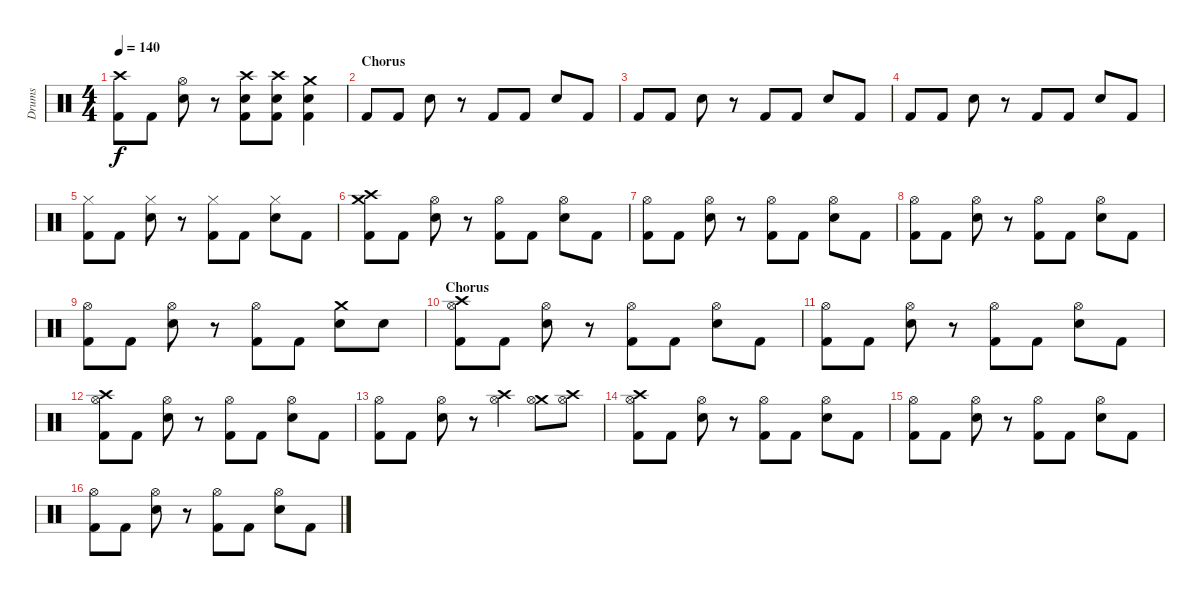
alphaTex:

\track ("Drums" "Drums") {instrument percussion}
\staff {score}
\articulation defaults
\ts (4 4)
\tempo 140
\clef neutral
\ks c
("Crash high (hit)" "Kick (hit) 2").8{dy f} "Kick (hit) 2".8 ("Hi-Hat (open)" "Electric Snare (hit)").8 r.8 ("Crash high (hit)" "Electric Snare (hit)" "Kick (hit) 2").8 ("Crash high (hit)" "Electric Snare (hit)" "Kick (hit) 2").8 ("Crash medium (hit)" "Electric Snare (hit)" "Kick (hit) 2").4 |
\section ("" "Chorus")
"Kick (hit) 2".8 "Kick (hit) 2".8 "Electric Snare (hit)".8 r.8 "Kick (hit) 2".8 "Kick (hit) 2".8 "Electric Snare (hit)".8 "Kick (hit) 2".8 |
"Kick (hit) 2".8 "Kick (hit) 2".8 "Electric Snare (hit)".8 r.8 "Kick (hit) 2".8 "Kick (hit) 2".8 "Electric Snare (hit)".8 "Kick (hit) 2".8 |
"Kick (hit) 2".8 "Kick (hit) 2".8 "Electric Snare (hit)".8 r.8 "Kick (hit) 2".8 "Kick (hit) 2".8 "Electric Snare (hit)".8 "Kick (hit) 2".8 |
("Hi-Hat (closed)" "Kick (hit) 2").8 "Kick (hit) 2".8 ("Hi-Hat (closed)" "Electric Snare (hit)").8 r.8 ("Hi-Hat (closed)" "Kick (hit) 2").8 "Kick (hit) 2".8 ("Hi-Hat (closed)" "Electric Snare (hit)").8 "Kick (hit) 2".8 |
("Crash medium (hit)" "Crash high (hit)" "Kick (hit) 2").8 "Kick (hit) 2".8 ("Hi-Hat (open)" "Electric Snare (hit)").8 r.8 ("Hi-Hat (open)" "Kick (hit) 2").8 "Kick (hit) 2".8 ("Hi-Hat (open)" "Electric Snare (hit)").8 "Kick (hit) 2".8 |
("Hi-Hat (open)" "Kick (hit) 2").8 "Kick (hit) 2".8 ("Hi-Hat (open)" "Electric Snare (hit)").8 r.8 ("Hi-Hat (open)" "Kick (hit) 2").8 "Kick (hit) 2".8 ("Hi-Hat (open)" "Electric Snare (hit)").8 "Kick (hit) 2".8 |
("Hi-Hat (open)" "Kick (hit) 2").8 "Kick (hit) 2".8 ("Hi-Hat (open)" "Electric Snare (hit)").8 r.8 ("Hi-Hat (open)" "Kick (hit) 2").8 "Kick (hit) 2".8 ("Hi-Hat (open)" "Electric Snare (hit)").8 "Kick (hit) 2".8 |
("Hi-Hat (open)" "Kick (hit) 2").8 "Kick (hit) 2".8 ("Hi-Hat (open)" "Electric Snare (hit)").8 r.8 ("Hi-Hat (open)" "Kick (hit) 2").8 "Kick (hit) 2".8 ("Crash medium (hit)" "Electric Snare (hit)").8 "Electric Snare (hit)".8 |
\section ("" "Chorus")
("Crash high (hit)" "Hi-Hat (open)" "Kick (hit) 2").8 "Kick (hit) 2".8 ("Hi-Hat (open)" "Electric Snare (hit)").8 r.8 ("Hi-Hat (open)" "Kick (hit) 2").8 "Kick (hit) 2".8 ("Hi-Hat (open)" "Electric Snare (hit)").8 "Kick (hit) 2".8 |
("Hi-Hat (open)" "Kick (hit) 2").8 "Kick (hit) 2".8 ("Hi-Hat (open)" "Electric Snare (hit)").8 r.8 ("Hi-Hat (open)" "Kick (hit) 2").8 "Kick (hit) 2".8 ("Hi-Hat (open)" "Electric Snare (hit)").8 "Kick (hit) 2".8 |
("Crash high (hit)" "Hi-Hat (open)" "Kick (hit) 2").8 "Kick (hit) 2".8 ("Hi-Hat (open)" "Electric Snare (hit)").8 r.8 ("Hi-Hat (open)" "Kick (hit) 2").8 "Kick (hit) 2".8 ("Hi-Hat (open)" "Electric Snare (hit)").8 "Kick (hit) 2".8 |
("Hi-Hat (open)" "Kick (hit) 2").8 "Kick (hit) 2".8 ("Hi-Hat (open)" "Electric Snare (hit)").8 r.8 ("Crash high (hit)" "Hi-Hat (open)").4 ("Crash medium (hit)" "Hi-Hat (open)").8 ("Crash high (hit)" "Hi-Hat (open)").8 |
("Crash high (hit)" "Hi-Hat (open)" "Kick (hit) 2").8 "Kick (hit) 2".8 ("Hi-Hat (open)" "Electric Snare (hit)").8 r.8 ("Hi-Hat (open)" "Kick (hit) 2").8 "Kick (hit) 2".8 ("Hi-Hat (open)" "Electric Snare (hit)").8 "Kick (hit) 2".8 |
("Hi-Hat (open)" "Kick (hit) 2").8 "Kick (hit) 2".8 ("Hi-Hat (open)" "Electric Snare (hit)").8 r.8 ("Hi-Hat (open)" "Kick (hit) 2").8 "Kick (hit) 2".8 ("Hi-Hat (open)" "Electric Snare (hit)").8 "Kick (hit) 2".8 |
("Hi-Hat (open)" "Kick (hit) 2").8 "Kick (hit) 2".8 ("Hi-Hat (open)" "Electric Snare (hit)").8 r.8 ("Hi-Hat (open)" "Kick (hit) 2").8 "Kick (hit) 2".8 ("Hi-Hat (open)" "Electric Snare (hit)").8 "Kick (hit) 2".8
